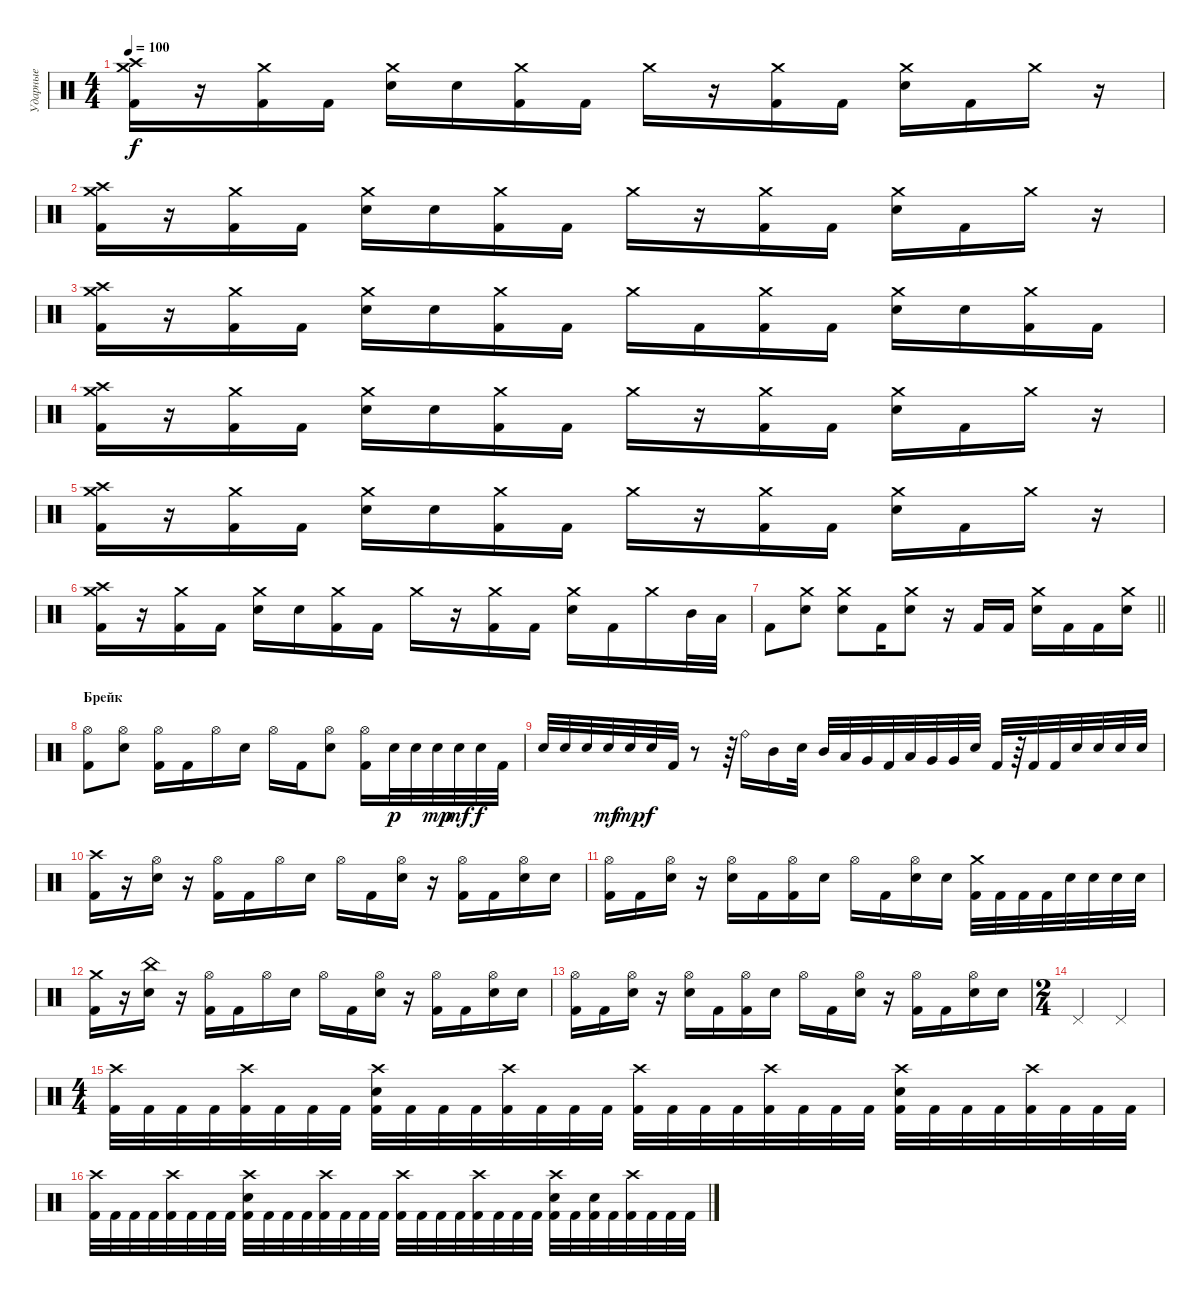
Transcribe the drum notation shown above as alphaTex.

\track ("Ударные" "Ударные") {instrument percussion}
\staff {score}
\articulation defaults
\ts (4 4)
\tempo 100
\clef neutral
\ks c
("Crash high (hit)" "Crash medium (hit)" "Kick (hit) 2").16{dy f} r.16 ("Crash medium (hit)" "Kick (hit) 2").16 "Kick (hit) 2".16 ("Crash medium (hit)" "Electric Snare (hit)").16 "Electric Snare (hit)".16 ("Crash medium (hit)" "Kick (hit) 2").16 "Kick (hit) 2".16 "Crash medium (hit)".16 r.16 ("Crash medium (hit)" "Kick (hit) 2").16 "Kick (hit) 2".16 ("Crash medium (hit)" "Electric Snare (hit)").16 "Kick (hit) 2".16 "Crash medium (hit)".16 r.16 |
("Crash high (hit)" "Crash medium (hit)" "Kick (hit) 2").16 r.16 ("Crash medium (hit)" "Kick (hit) 2").16 "Kick (hit) 2".16 ("Crash medium (hit)" "Electric Snare (hit)").16 "Electric Snare (hit)".16 ("Crash medium (hit)" "Kick (hit) 2").16 "Kick (hit) 2".16 "Crash medium (hit)".16 r.16 ("Crash medium (hit)" "Kick (hit) 2").16 "Kick (hit) 2".16 ("Crash medium (hit)" "Electric Snare (hit)").16 "Kick (hit) 2".16 "Crash medium (hit)".16 r.16 |
("Crash high (hit)" "Crash medium (hit)" "Kick (hit) 2").16 r.16 ("Crash medium (hit)" "Kick (hit) 2").16 "Kick (hit) 2".16 ("Crash medium (hit)" "Electric Snare (hit)").16 "Electric Snare (hit)".16 ("Crash medium (hit)" "Kick (hit) 2").16 "Kick (hit) 2".16 "Crash medium (hit)".16 "Kick (hit) 2".16 ("Crash medium (hit)" "Kick (hit) 2").16 "Kick (hit) 2".16 ("Crash medium (hit)" "Electric Snare (hit)").16 "Electric Snare (hit)".16 ("Crash medium (hit)" "Kick (hit) 2").16 "Kick (hit) 2".16 |
("Crash high (hit)" "Crash medium (hit)" "Kick (hit) 2").16 r.16 ("Crash medium (hit)" "Kick (hit) 2").16 "Kick (hit) 2".16 ("Crash medium (hit)" "Electric Snare (hit)").16 "Electric Snare (hit)".16 ("Crash medium (hit)" "Kick (hit) 2").16 "Kick (hit) 2".16 "Crash medium (hit)".16 r.16 ("Crash medium (hit)" "Kick (hit) 2").16 "Kick (hit) 2".16 ("Crash medium (hit)" "Electric Snare (hit)").16 "Kick (hit) 2".16 "Crash medium (hit)".16 r.16 |
("Crash high (hit)" "Crash medium (hit)" "Kick (hit) 2").16 r.16 ("Crash medium (hit)" "Kick (hit) 2").16 "Kick (hit) 2".16 ("Crash medium (hit)" "Electric Snare (hit)").16 "Electric Snare (hit)".16 ("Crash medium (hit)" "Kick (hit) 2").16 "Kick (hit) 2".16 "Crash medium (hit)".16 r.16 ("Crash medium (hit)" "Kick (hit) 2").16 "Kick (hit) 2".16 ("Crash medium (hit)" "Electric Snare (hit)").16 "Kick (hit) 2".16 "Crash medium (hit)".16 r.16 |
("Crash high (hit)" "Crash medium (hit)" "Kick (hit) 2").16 r.16 ("Crash medium (hit)" "Kick (hit) 2").16 "Kick (hit) 2".16 ("Crash medium (hit)" "Electric Snare (hit)").16 "Electric Snare (hit)".16 ("Crash medium (hit)" "Kick (hit) 2").16 "Kick (hit) 2".16 "Crash medium (hit)".16 r.16 ("Crash medium (hit)" "Kick (hit) 2").16 "Kick (hit) 2".16 ("Crash medium (hit)" "Electric Snare (hit)").16 "Kick (hit) 2".16 "Crash medium (hit)".16 "Mid Tom (hit)".32 "Low Tom (hit)".32 |
\barLineRight lightlight "Kick (hit) 2".8
("Crash medium (hit)" "Electric Snare (hit)").8 ("Crash medium (hit)" "Electric Snare (hit)").8 "Kick (hit) 2".16 ("Crash medium (hit)" "Electric Snare (hit)").8 r.16 "Kick (hit) 2".16 "Kick (hit) 2".16 ("Crash medium (hit)" "Electric Snare (hit)").16 "Kick (hit) 2".16 "Kick (hit) 2".16 ("Crash medium (hit)" "Electric Snare (hit)").16 |
\section ("" "Брейк")
("Hi-Hat (open)" "Kick (hit) 2").8 ("Hi-Hat (open)" "Electric Snare (hit)").8 ("Hi-Hat (open)" "Kick (hit) 2").16 "Kick (hit) 2".16 "Hi-Hat (open)".16 "Electric Snare (hit)".16 "Hi-Hat (open)".16 "Kick (hit) 2".16 ("Hi-Hat (open)" "Electric Snare (hit)").8 ("Hi-Hat (open)" "Kick (hit) 2").16 "Electric Snare (hit)".32{dy p} "Electric Snare (hit)".32 "Electric Snare (hit)".32{dy mp} "Electric Snare (hit)".32{dy mf} "Electric Snare (hit)".32{dy f} "Kick (hit) 2".32 |
"Electric Snare (hit)".32 "Electric Snare (hit)".32 "Electric Snare (hit)".32 "Electric Snare (hit)".32{dy mf} "Electric Snare (hit)".32{dy mp} "Electric Snare (hit)".32{dy f} "Kick (hit) 2".32 r.8 r.64 "Ride (bell)".16 "Mid Tom (hit)".16 "Electric Snare (hit)".32 "Mid Tom (hit)".32 "Low Tom (hit)".32 "Very Low Tom (hit)".32 "Kick (hit) 2".32 "Low Tom (hit)".32 "Very Low Tom (hit)".32 "Very Low Tom (hit)".32 "Electric Snare (hit)".32 "Kick (hit) 2".32 r.64 "Kick (hit) 2".32 "Kick (hit) 2".32 "Electric Snare (hit)".32 "Electric Snare (hit)".32 "Electric Snare (hit)".32 "Electric Snare (hit)".32 |
("Crash high (hit)" "Kick (hit) 2").16 r.16 ("Hi-Hat (open)" "Electric Snare (hit)").16 r.16 ("Hi-Hat (open)" "Kick (hit) 2").16 "Kick (hit) 2".16 "Hi-Hat (open)".16 "Electric Snare (hit)".16 "Hi-Hat (open)".16 "Kick (hit) 2".16 ("Hi-Hat (open)" "Electric Snare (hit)").16 r.16 ("Hi-Hat (open)" "Kick (hit) 2").16 "Kick (hit) 2".16 ("Hi-Hat (open)" "Electric Snare (hit)").16 "Electric Snare (hit)".16 |
("Hi-Hat (open)" "Kick (hit) 2").16 "Kick (hit) 2".16 ("Hi-Hat (open)" "Electric Snare (hit)").16 r.16 ("Hi-Hat (open)" "Electric Snare (hit)").16 "Kick (hit) 2".16 ("Hi-Hat (open)" "Kick (hit) 2").16 "Electric Snare (hit)".16 "Hi-Hat (open)".16 "Kick (hit) 2".16 ("Hi-Hat (open)" "Electric Snare (hit)").16 "Electric Snare (hit)".16 ("Crash medium (hit)" "Kick (hit) 2").32 "Kick (hit) 2".32 "Kick (hit) 2".32 "Kick (hit) 2".32 "Electric Snare (hit)".32 "Electric Snare (hit)".32 "Electric Snare (hit)".32 "Electric Snare (hit)".32 |
("Crash medium (hit)" "Kick (hit) 2").16 r.16 ("China (hit)" "Electric Snare (hit)").16 r.16 ("Hi-Hat (open)" "Kick (hit) 2").16 "Kick (hit) 2".16 "Hi-Hat (open)".16 "Electric Snare (hit)".16 "Hi-Hat (open)".16 "Kick (hit) 2".16 ("Hi-Hat (open)" "Electric Snare (hit)").16 r.16 ("Hi-Hat (open)" "Kick (hit) 2").16 "Kick (hit) 2".16 ("Hi-Hat (open)" "Electric Snare (hit)").16 "Electric Snare (hit)".16 |
("Hi-Hat (open)" "Kick (hit) 2").16 "Kick (hit) 2".16 ("Hi-Hat (open)" "Electric Snare (hit)").16 r.16 ("Hi-Hat (open)" "Electric Snare (hit)").16 "Kick (hit) 2".16 ("Hi-Hat (open)" "Kick (hit) 2").16 "Electric Snare (hit)".16 "Hi-Hat (open)".16 "Kick (hit) 2".16 ("Hi-Hat (open)" "Electric Snare (hit)").16 r.16 ("Hi-Hat (open)" "Kick (hit) 2").16 "Kick (hit) 2".16 ("Hi-Hat (open)" "Electric Snare (hit)").16 "Electric Snare (hit)".16 |
\ts (2 4)
"Pedal Hi-Hat (hit)".4 "Pedal Hi-Hat (hit)".4 |
\ts (4 4)
("Crash high (hit)" "Kick (hit) 2").32 "Kick (hit) 2".32 "Kick (hit) 2".32 "Kick (hit) 2".32 ("Crash high (hit)" "Kick (hit) 2").32 "Kick (hit) 2".32 "Kick (hit) 2".32 "Kick (hit) 2".32 ("Crash high (hit)" "Electric Snare (hit)" "Kick (hit) 2").32 "Kick (hit) 2".32 "Kick (hit) 2".32 "Kick (hit) 2".32 ("Crash high (hit)" "Kick (hit) 2").32 "Kick (hit) 2".32 "Kick (hit) 2".32 "Kick (hit) 2".32 ("Crash high (hit)" "Kick (hit) 2").32 "Kick (hit) 2".32 "Kick (hit) 2".32 "Kick (hit) 2".32 ("Crash high (hit)" "Kick (hit) 2").32 "Kick (hit) 2".32 "Kick (hit) 2".32 "Kick (hit) 2".32 ("Crash high (hit)" "Electric Snare (hit)" "Kick (hit) 2").32 "Kick (hit) 2".32 "Kick (hit) 2".32 "Kick (hit) 2".32 ("Crash high (hit)" "Kick (hit) 2").32 "Kick (hit) 2".32 "Kick (hit) 2".32 "Kick (hit) 2".32 |
("Crash high (hit)" "Kick (hit) 2").32 "Kick (hit) 2".32 "Kick (hit) 2".32 "Kick (hit) 2".32 ("Crash high (hit)" "Kick (hit) 2").32 "Kick (hit) 2".32 "Kick (hit) 2".32 "Kick (hit) 2".32 ("Crash high (hit)" "Electric Snare (hit)" "Kick (hit) 2").32 "Kick (hit) 2".32 "Kick (hit) 2".32 "Kick (hit) 2".32 ("Crash high (hit)" "Kick (hit) 2").32 "Kick (hit) 2".32 "Kick (hit) 2".32 "Kick (hit) 2".32 ("Crash high (hit)" "Kick (hit) 2").32 "Kick (hit) 2".32 "Kick (hit) 2".32 "Kick (hit) 2".32 ("Crash high (hit)" "Kick (hit) 2").32 "Kick (hit) 2".32 "Kick (hit) 2".32 "Kick (hit) 2".32 ("Crash high (hit)" "Electric Snare (hit)" "Kick (hit) 2").32 "Kick (hit) 2".32 ("Electric Snare (hit)" "Kick (hit) 2").32 "Kick (hit) 2".32 ("Crash high (hit)" "Kick (hit) 2").32 "Kick (hit) 2".32 "Kick (hit) 2".32 "Kick (hit) 2".32
